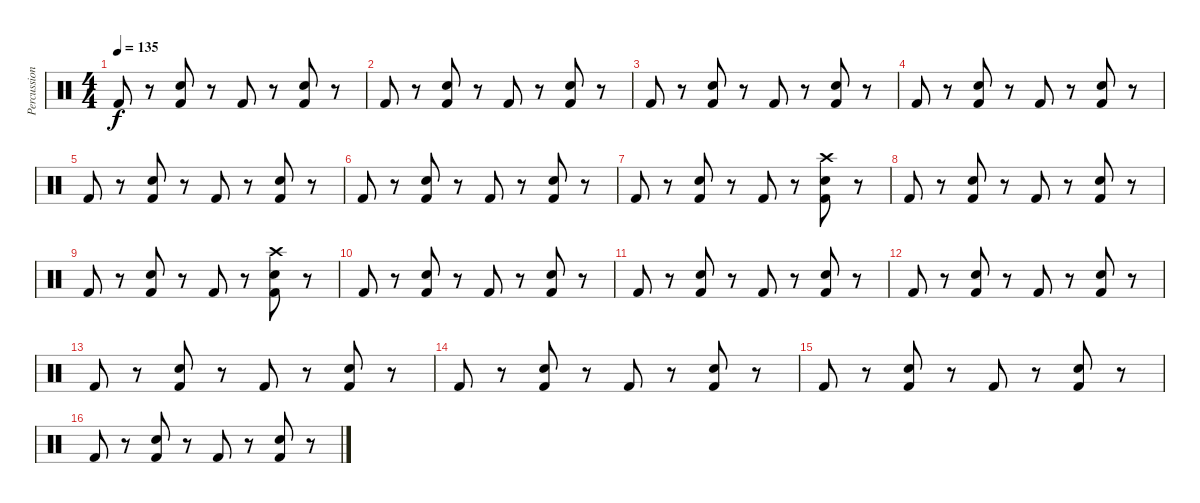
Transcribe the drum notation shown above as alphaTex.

\track ("Percussions" "Percussion") {instrument percussion}
\staff {score}
\articulation defaults
\ts (4 4)
\tempo 135
\clef neutral
\ks c "Kick (hit) 2".8{dy f}
r.8 ("Snare (hit) 2" "Kick (hit) 2").8 r.8 "Kick (hit) 2".8 r.8 ("Snare (hit) 2" "Kick (hit) 2").8 r.8 |
"Kick (hit) 2".8 r.8 ("Snare (hit) 2" "Kick (hit) 2").8 r.8 "Kick (hit) 2".8 r.8 ("Snare (hit) 2" "Kick (hit) 2").8 r.8 |
"Kick (hit) 2".8 r.8 ("Snare (hit) 2" "Kick (hit) 2").8 r.8 "Kick (hit) 2".8 r.8 ("Snare (hit) 2" "Kick (hit) 2").8 r.8 |
"Kick (hit) 2".8 r.8 ("Snare (hit) 2" "Kick (hit) 2").8 r.8 "Kick (hit) 2".8 r.8 ("Snare (hit) 2" "Kick (hit) 2").8 r.8 |
"Kick (hit) 2".8 r.8 ("Snare (hit) 2" "Kick (hit) 2").8 r.8 "Kick (hit) 2".8 r.8 ("Snare (hit) 2" "Kick (hit) 2").8 r.8 |
"Kick (hit) 2".8 r.8 ("Snare (hit) 2" "Kick (hit) 2").8 r.8 "Kick (hit) 2".8 r.8 ("Snare (hit) 2" "Kick (hit) 2").8 r.8 |
"Kick (hit) 2".8 r.8 ("Snare (hit) 2" "Kick (hit) 2").8 r.8 "Kick (hit) 2".8 r.8 ("Crash high (hit)" "Snare (hit) 2" "Kick (hit) 2").8 r.8 |
"Kick (hit) 2".8 r.8 ("Snare (hit) 2" "Kick (hit) 2").8 r.8 "Kick (hit) 2".8 r.8 ("Snare (hit) 2" "Kick (hit) 2").8 r.8 |
"Kick (hit) 2".8 r.8 ("Snare (hit) 2" "Kick (hit) 2").8 r.8 "Kick (hit) 2".8 r.8 ("Crash high (hit)" "Snare (hit) 2" "Kick (hit) 2").8 r.8 |
"Kick (hit) 2".8 r.8 ("Snare (hit) 2" "Kick (hit) 2").8 r.8 "Kick (hit) 2".8 r.8 ("Snare (hit) 2" "Kick (hit) 2").8 r.8 |
"Kick (hit) 2".8 r.8 ("Snare (hit) 2" "Kick (hit) 2").8 r.8 "Kick (hit) 2".8 r.8 ("Snare (hit) 2" "Kick (hit) 2").8 r.8 |
"Kick (hit) 2".8 r.8 ("Snare (hit) 2" "Kick (hit) 2").8 r.8 "Kick (hit) 2".8 r.8 ("Snare (hit) 2" "Kick (hit) 2").8 r.8 |
"Kick (hit) 2".8 r.8 ("Snare (hit) 2" "Kick (hit) 2").8 r.8 "Kick (hit) 2".8 r.8 ("Snare (hit) 2" "Kick (hit) 2").8 r.8 |
"Kick (hit) 2".8 r.8 ("Snare (hit) 2" "Kick (hit) 2").8 r.8 "Kick (hit) 2".8 r.8 ("Snare (hit) 2" "Kick (hit) 2").8 r.8 |
"Kick (hit) 2".8 r.8 ("Snare (hit) 2" "Kick (hit) 2").8 r.8 "Kick (hit) 2".8 r.8 ("Snare (hit) 2" "Kick (hit) 2").8 r.8 |
"Kick (hit) 2".8 r.8 ("Snare (hit) 2" "Kick (hit) 2").8 r.8 "Kick (hit) 2".8 r.8 ("Snare (hit) 2" "Kick (hit) 2").8 r.8
